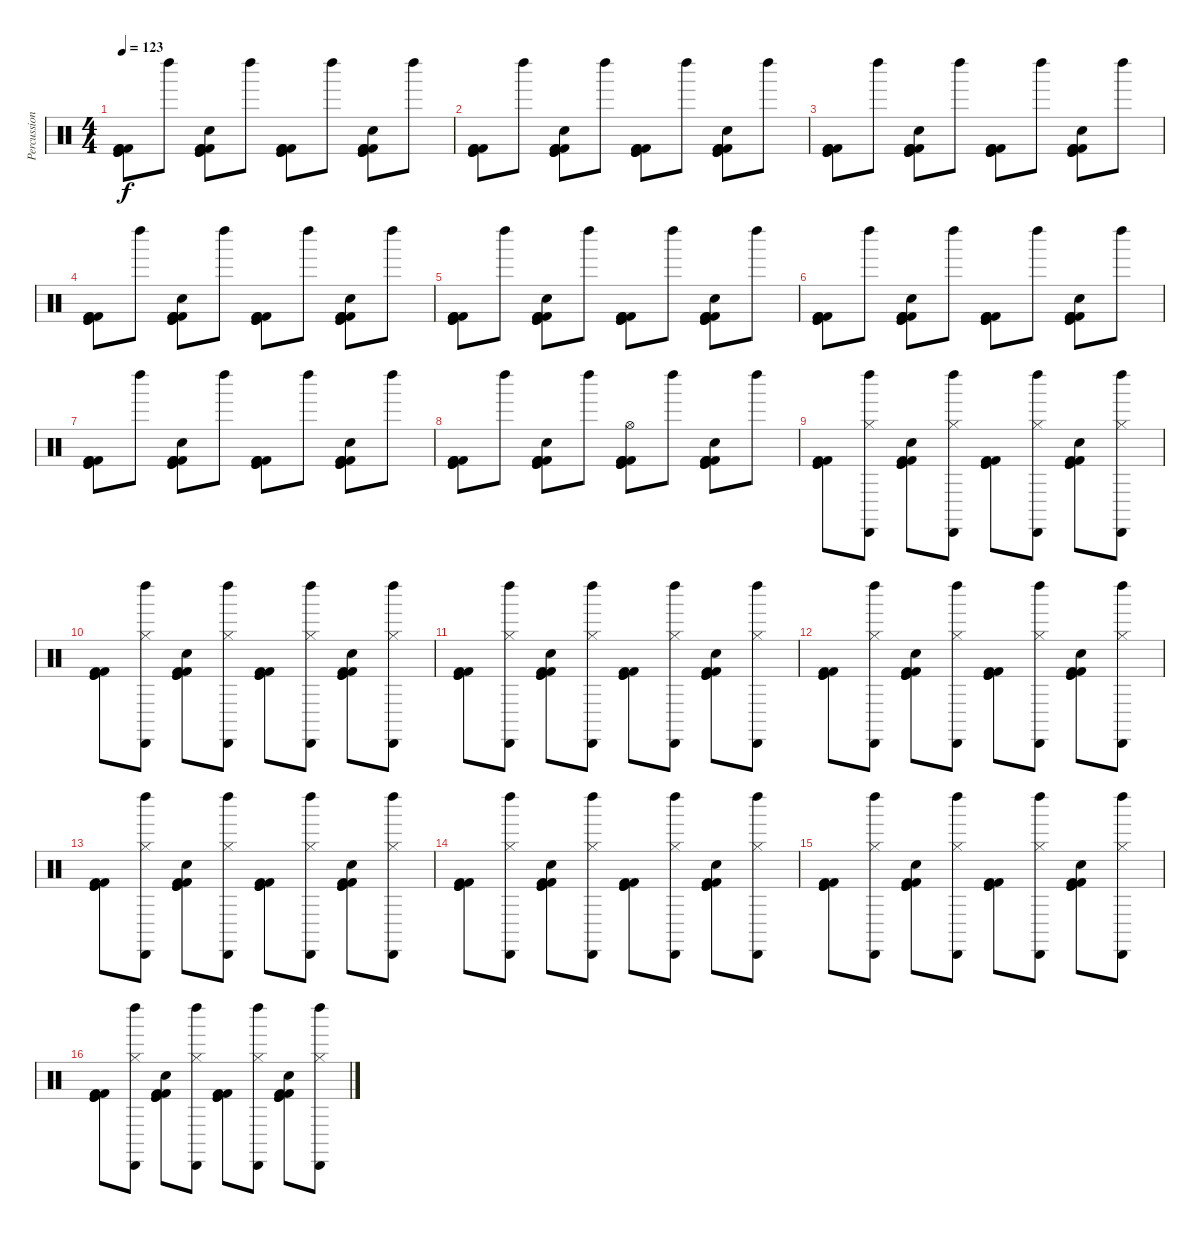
\track ("Percussion" "Percussion") {instrument percussion}
\staff {score}
\articulation defaults
\ts (4 4)
\tempo 123
\clef neutral
\ks c
("Kick (hit)" "Kick (hit)" "Kick (hit) 2" "Kick (hit) 2" "Kick (hit) 2").8{dy f} "Left Maraca (hit)".8 ("Kick (hit)" "Kick (hit)" "Kick (hit) 2" "Kick (hit) 2" "Hand Clap (hit)" "Kick (hit) 2").8 "Left Maraca (hit)".8 ("Kick (hit)" "Kick (hit)" "Kick (hit) 2" "Kick (hit) 2" "Kick (hit) 2").8 "Left Maraca (hit)".8 ("Kick (hit)" "Kick (hit)" "Kick (hit) 2" "Kick (hit) 2" "Kick (hit) 2" "Hand Clap (hit)").8 "Left Maraca (hit)".8 |
("Kick (hit)" "Kick (hit)" "Kick (hit) 2" "Kick (hit) 2" "Kick (hit) 2").8 "Left Maraca (hit)".8 ("Kick (hit)" "Kick (hit)" "Kick (hit) 2" "Kick (hit) 2" "Hand Clap (hit)" "Kick (hit) 2").8 "Left Maraca (hit)".8 ("Kick (hit)" "Kick (hit)" "Kick (hit) 2" "Kick (hit) 2" "Kick (hit) 2").8 "Left Maraca (hit)".8 ("Kick (hit)" "Kick (hit)" "Kick (hit) 2" "Kick (hit) 2" "Kick (hit) 2" "Hand Clap (hit)").8 "Left Maraca (hit)".8 |
("Kick (hit)" "Kick (hit)" "Kick (hit) 2" "Kick (hit) 2" "Kick (hit) 2").8 "Left Maraca (hit)".8 ("Kick (hit)" "Kick (hit)" "Kick (hit) 2" "Kick (hit) 2" "Hand Clap (hit)" "Kick (hit) 2").8 "Left Maraca (hit)".8 ("Kick (hit)" "Kick (hit)" "Kick (hit) 2" "Kick (hit) 2" "Kick (hit) 2").8 "Left Maraca (hit)".8 ("Kick (hit)" "Kick (hit)" "Kick (hit) 2" "Kick (hit) 2" "Kick (hit) 2" "Hand Clap (hit)").8 "Left Maraca (hit)".8 |
("Kick (hit)" "Kick (hit)" "Kick (hit) 2" "Kick (hit) 2" "Kick (hit) 2").8 "Left Maraca (hit)".8 ("Kick (hit)" "Kick (hit)" "Kick (hit) 2" "Kick (hit) 2" "Hand Clap (hit)" "Kick (hit) 2").8 "Left Maraca (hit)".8 ("Kick (hit)" "Kick (hit)" "Kick (hit) 2" "Kick (hit) 2" "Kick (hit) 2").8 "Left Maraca (hit)".8 ("Kick (hit)" "Kick (hit)" "Kick (hit) 2" "Kick (hit) 2" "Kick (hit) 2" "Hand Clap (hit)").8 "Left Maraca (hit)".8 |
("Kick (hit)" "Kick (hit)" "Kick (hit) 2" "Kick (hit) 2" "Kick (hit) 2").8 "Left Maraca (hit)".8 ("Kick (hit)" "Kick (hit)" "Kick (hit) 2" "Kick (hit) 2" "Hand Clap (hit)" "Kick (hit) 2").8 "Left Maraca (hit)".8 ("Kick (hit)" "Kick (hit)" "Kick (hit) 2" "Kick (hit) 2" "Kick (hit) 2").8 "Left Maraca (hit)".8 ("Kick (hit)" "Kick (hit)" "Kick (hit) 2" "Kick (hit) 2" "Kick (hit) 2" "Hand Clap (hit)").8 "Left Maraca (hit)".8 |
("Kick (hit)" "Kick (hit)" "Kick (hit) 2" "Kick (hit) 2" "Kick (hit) 2").8 "Left Maraca (hit)".8 ("Kick (hit)" "Kick (hit)" "Kick (hit) 2" "Kick (hit) 2" "Hand Clap (hit)" "Kick (hit) 2").8 "Left Maraca (hit)".8 ("Kick (hit)" "Kick (hit)" "Kick (hit) 2" "Kick (hit) 2" "Kick (hit) 2").8 "Left Maraca (hit)".8 ("Kick (hit)" "Kick (hit)" "Kick (hit) 2" "Kick (hit) 2" "Kick (hit) 2" "Hand Clap (hit)").8 "Left Maraca (hit)".8 |
("Kick (hit)" "Kick (hit)" "Kick (hit) 2" "Kick (hit) 2" "Kick (hit) 2").8 "Left Maraca (hit)".8 ("Kick (hit)" "Kick (hit)" "Kick (hit) 2" "Kick (hit) 2" "Hand Clap (hit)" "Kick (hit) 2").8 "Left Maraca (hit)".8 ("Kick (hit)" "Kick (hit)" "Kick (hit) 2" "Kick (hit) 2" "Kick (hit) 2").8 "Left Maraca (hit)".8 ("Kick (hit)" "Kick (hit)" "Kick (hit) 2" "Kick (hit) 2" "Kick (hit) 2" "Hand Clap (hit)").8 "Left Maraca (hit)".8 |
("Kick (hit)" "Kick (hit)" "Kick (hit) 2" "Kick (hit) 2" "Kick (hit) 2").8 "Left Maraca (hit)".8 ("Kick (hit)" "Kick (hit)" "Kick (hit) 2" "Kick (hit) 2" "Hand Clap (hit)" "Kick (hit) 2").8 "Left Maraca (hit)".8 ("Hi-Hat (open)" "Kick (hit)" "Kick (hit)" "Kick (hit) 2" "Kick (hit) 2" "Kick (hit) 2").8 "Left Maraca (hit)".8 ("Kick (hit)" "Kick (hit)" "Kick (hit) 2" "Kick (hit) 2" "Kick (hit) 2" "Hand Clap (hit)").8 "Left Maraca (hit)".8 |
("Kick (hit)" "Kick (hit)" "Kick (hit) 2" "Kick (hit) 2").8 ("Cabasa (hit)" "Left Maraca (hit)" "Hi-Hat (closed)").8 ("Hand Clap (hit)" "Kick (hit)" "Kick (hit)" "Kick (hit) 2" "Kick (hit) 2").8 ("Cabasa (hit)" "Left Maraca (hit)" "Hi-Hat (closed)").8 ("Kick (hit)" "Kick (hit) 2" "Kick (hit) 2" "Kick (hit)").8 ("Cabasa (hit)" "Left Maraca (hit)" "Hi-Hat (closed)").8 ("Hand Clap (hit)" "Kick (hit) 2" "Kick (hit)" "Kick (hit) 2" "Kick (hit)").8 ("Cabasa (hit)" "Left Maraca (hit)" "Hi-Hat (closed)").8 |
("Kick (hit)" "Kick (hit)" "Kick (hit) 2" "Kick (hit) 2").8 ("Cabasa (hit)" "Left Maraca (hit)" "Hi-Hat (closed)").8 ("Hand Clap (hit)" "Kick (hit)" "Kick (hit)" "Kick (hit) 2" "Kick (hit) 2").8 ("Cabasa (hit)" "Left Maraca (hit)" "Hi-Hat (closed)").8 ("Kick (hit)" "Kick (hit) 2" "Kick (hit) 2" "Kick (hit)").8 ("Cabasa (hit)" "Left Maraca (hit)" "Hi-Hat (closed)").8 ("Hand Clap (hit)" "Kick (hit) 2" "Kick (hit)" "Kick (hit) 2" "Kick (hit)").8 ("Cabasa (hit)" "Left Maraca (hit)" "Hi-Hat (closed)").8 |
("Kick (hit)" "Kick (hit)" "Kick (hit) 2" "Kick (hit) 2").8 ("Cabasa (hit)" "Left Maraca (hit)" "Hi-Hat (closed)").8 ("Hand Clap (hit)" "Kick (hit)" "Kick (hit)" "Kick (hit) 2" "Kick (hit) 2").8 ("Cabasa (hit)" "Left Maraca (hit)" "Hi-Hat (closed)").8 ("Kick (hit)" "Kick (hit) 2" "Kick (hit) 2" "Kick (hit)").8 ("Cabasa (hit)" "Left Maraca (hit)" "Hi-Hat (closed)").8 ("Hand Clap (hit)" "Kick (hit) 2" "Kick (hit)" "Kick (hit) 2" "Kick (hit)").8 ("Cabasa (hit)" "Left Maraca (hit)" "Hi-Hat (closed)").8 |
("Kick (hit)" "Kick (hit)" "Kick (hit) 2" "Kick (hit) 2").8 ("Cabasa (hit)" "Left Maraca (hit)" "Hi-Hat (closed)").8 ("Hand Clap (hit)" "Kick (hit)" "Kick (hit)" "Kick (hit) 2" "Kick (hit) 2").8 ("Cabasa (hit)" "Left Maraca (hit)" "Hi-Hat (closed)").8 ("Kick (hit)" "Kick (hit) 2" "Kick (hit) 2" "Kick (hit)").8 ("Cabasa (hit)" "Left Maraca (hit)" "Hi-Hat (closed)").8 ("Hand Clap (hit)" "Kick (hit) 2" "Kick (hit)" "Kick (hit) 2" "Kick (hit)").8 ("Cabasa (hit)" "Left Maraca (hit)" "Hi-Hat (closed)").8 |
("Kick (hit)" "Kick (hit)" "Kick (hit) 2" "Kick (hit) 2").8 ("Cabasa (hit)" "Left Maraca (hit)" "Hi-Hat (closed)").8 ("Hand Clap (hit)" "Kick (hit)" "Kick (hit)" "Kick (hit) 2" "Kick (hit) 2").8 ("Cabasa (hit)" "Left Maraca (hit)" "Hi-Hat (closed)").8 ("Kick (hit)" "Kick (hit) 2" "Kick (hit) 2" "Kick (hit)").8 ("Cabasa (hit)" "Left Maraca (hit)" "Hi-Hat (closed)").8 ("Hand Clap (hit)" "Kick (hit) 2" "Kick (hit)" "Kick (hit) 2" "Kick (hit)").8 ("Cabasa (hit)" "Left Maraca (hit)" "Hi-Hat (closed)").8 |
("Kick (hit)" "Kick (hit)" "Kick (hit) 2" "Kick (hit) 2").8 ("Cabasa (hit)" "Left Maraca (hit)" "Hi-Hat (closed)").8 ("Hand Clap (hit)" "Kick (hit)" "Kick (hit)" "Kick (hit) 2" "Kick (hit) 2").8 ("Cabasa (hit)" "Left Maraca (hit)" "Hi-Hat (closed)").8 ("Kick (hit)" "Kick (hit) 2" "Kick (hit) 2" "Kick (hit)").8 ("Cabasa (hit)" "Left Maraca (hit)" "Hi-Hat (closed)").8 ("Hand Clap (hit)" "Kick (hit) 2" "Kick (hit)" "Kick (hit) 2" "Kick (hit)").8 ("Cabasa (hit)" "Left Maraca (hit)" "Hi-Hat (closed)").8 |
("Kick (hit)" "Kick (hit)" "Kick (hit) 2" "Kick (hit) 2").8 ("Cabasa (hit)" "Left Maraca (hit)" "Hi-Hat (closed)").8 ("Hand Clap (hit)" "Kick (hit)" "Kick (hit)" "Kick (hit) 2" "Kick (hit) 2").8 ("Cabasa (hit)" "Left Maraca (hit)" "Hi-Hat (closed)").8 ("Kick (hit)" "Kick (hit) 2" "Kick (hit) 2" "Kick (hit)").8 ("Cabasa (hit)" "Left Maraca (hit)" "Hi-Hat (closed)").8 ("Hand Clap (hit)" "Kick (hit) 2" "Kick (hit)" "Kick (hit) 2" "Kick (hit)").8 ("Cabasa (hit)" "Left Maraca (hit)" "Hi-Hat (closed)").8 |
("Kick (hit)" "Kick (hit)" "Kick (hit) 2" "Kick (hit) 2").8 ("Cabasa (hit)" "Left Maraca (hit)" "Hi-Hat (closed)").8 ("Hand Clap (hit)" "Kick (hit)" "Kick (hit)" "Kick (hit) 2" "Kick (hit) 2").8 ("Cabasa (hit)" "Left Maraca (hit)" "Hi-Hat (closed)").8 ("Kick (hit)" "Kick (hit) 2" "Kick (hit) 2" "Kick (hit)").8 ("Cabasa (hit)" "Left Maraca (hit)" "Hi-Hat (closed)").8 ("Hand Clap (hit)" "Kick (hit) 2" "Kick (hit)" "Kick (hit) 2" "Kick (hit)").8 ("Cabasa (hit)" "Left Maraca (hit)" "Hi-Hat (closed)").8
